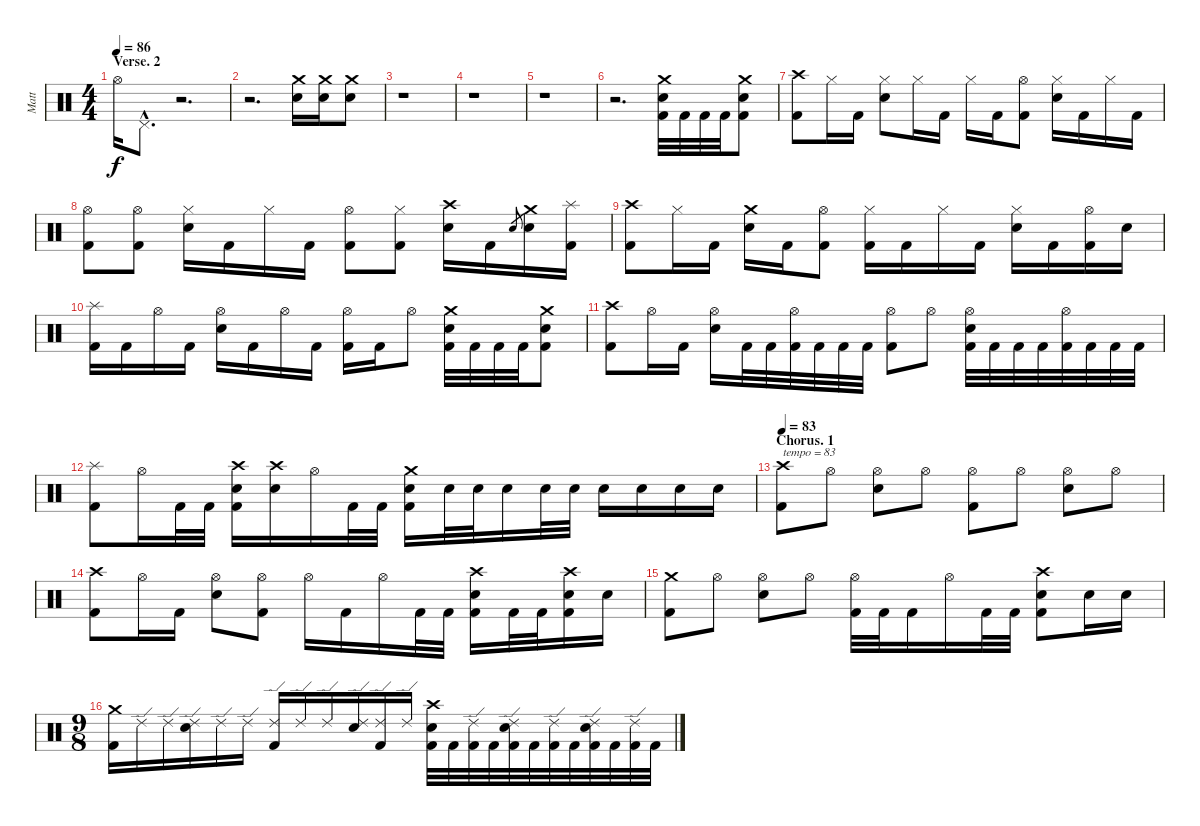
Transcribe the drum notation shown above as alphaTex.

\track ("Matt" "Matt") {instrument percussion}
\staff {score}
\articulation defaults
\ts (4 4)
\section ("" "Verse. 2")
\tempo 86
\clef neutral
\ks c "Hi-Hat (open)".16{dy f} "Pedal Hi-Hat (hit)"{hac}.8{d}
r.2{d} |
r.2{d} ("Crash medium (hit)" "Electric Snare (hit)").16 ("Crash medium (hit)" "Electric Snare (hit)").16 ("Crash medium (hit)" "Electric Snare (hit)").8 |
r.1 |
r.1 |
r.1 |
r.2{d} ("Crash medium (hit)" "Electric Snare (hit)" "Kick (hit) 2").32 "Kick (hit) 2".32 "Kick (hit) 2".32 "Kick (hit) 2".32 ("Crash medium (hit)" "Electric Snare (hit)" "Kick (hit) 2").8 |
("Crash high (hit)" "Kick (hit) 2").8 "Hi-Hat (closed)".16 "Kick (hit) 2".16 ("Hi-Hat (closed)" "Electric Snare (hit)").8 "Hi-Hat (closed)".16 "Kick (hit) 2".16 "Hi-Hat (closed)".16 "Kick (hit) 2".16 ("Hi-Hat (open)" "Kick (hit) 2").8 ("Hi-Hat (closed)" "Electric Snare (hit)").16 "Kick (hit) 2".16 "Hi-Hat (closed)".16 "Kick (hit) 2".16 |
("Hi-Hat (open)" "Kick (hit) 2").8 ("Hi-Hat (open)" "Kick (hit) 2").8 ("Hi-Hat (closed)" "Electric Snare (hit)").16 "Kick (hit) 2".16 "Hi-Hat (closed)".16 "Kick (hit) 2".16 ("Hi-Hat (open)" "Kick (hit) 2").8 ("Hi-Hat (closed)" "Kick (hit) 2").8 ("Crash high (hit)" "Electric Snare (hit)").16 "Kick (hit) 2".16 "Electric Snare (hit)".8{gr} ("Crash medium (hit)" "Electric Snare (hit)").16 ("Splash (hit)" "Kick (hit) 2").16 |
("Crash high (hit)" "Kick (hit) 2").8 "Hi-Hat (closed)".16 "Kick (hit) 2".16 ("Crash medium (hit)" "Electric Snare (hit)").16 "Kick (hit) 2".16 ("Hi-Hat (open)" "Kick (hit) 2").8 ("Hi-Hat (closed)" "Kick (hit) 2").16 "Kick (hit) 2".16 "Hi-Hat (closed)".16 "Kick (hit) 2".16 ("Hi-Hat (closed)" "Electric Snare (hit)").16 "Kick (hit) 2".16 ("Hi-Hat (open)" "Kick (hit) 2").16 "Electric Snare (hit)".16 |
("Splash (hit)" "Kick (hit) 2").16 "Kick (hit) 2".16 "Hi-Hat (open)".16 "Kick (hit) 2".16 ("Hi-Hat (open)" "Electric Snare (hit)").16 "Kick (hit) 2".16 "Hi-Hat (open)".16 "Kick (hit) 2".16 ("Hi-Hat (open)" "Kick (hit) 2").16 "Kick (hit) 2".16 "Hi-Hat (open)".8 ("Crash medium (hit)" "Electric Snare (hit)" "Kick (hit) 2").32 "Kick (hit) 2".32 "Kick (hit) 2".32 "Kick (hit) 2".32 ("Crash medium (hit)" "Electric Snare (hit)" "Kick (hit) 2").8 |
("Crash high (hit)" "Kick (hit) 2").8 "Hi-Hat (open)".16 "Kick (hit) 2".16 ("Hi-Hat (open)" "Electric Snare (hit)").16 "Kick (hit) 2".32 "Kick (hit) 2".32 ("Hi-Hat (open)" "Kick (hit) 2").32 "Kick (hit) 2".32 "Kick (hit) 2".32 "Kick (hit) 2".32 ("Hi-Hat (open)" "Kick (hit) 2").8 "Hi-Hat (open)".8 ("Hi-Hat (open)" "Electric Snare (hit)" "Kick (hit) 2").32 "Kick (hit) 2".32 "Kick (hit) 2".32 "Kick (hit) 2".32 ("Hi-Hat (open)" "Kick (hit) 2").32 "Kick (hit) 2".32 "Kick (hit) 2".32 "Kick (hit) 2".32 |
("Splash (hit)" "Kick (hit) 2").8 "Hi-Hat (open)".16 "Kick (hit) 2".32 "Kick (hit) 2".32 ("Crash high (hit)" "Electric Snare (hit)" "Kick (hit) 2").16 ("Crash high (hit)" "Electric Snare (hit)").16 "Hi-Hat (open)".16 "Kick (hit) 2".32 "Kick (hit) 2".32 ("Crash medium (hit)" "Electric Snare (hit)" "Kick (hit) 2").16 "Electric Snare (hit)".32 "Electric Snare (hit)".32 "Electric Snare (hit)".16 "Electric Snare (hit)".32 "Electric Snare (hit)".32 "Electric Snare (hit)".16 "Electric Snare (hit)".16 "Electric Snare (hit)".16 "Electric Snare (hit)".16 |
\section ("" "Chorus. 1")
\tempo 83
("Crash high (hit)" "Kick (hit) 2").8{txt "tempo = 83"} "Hi-Hat (open)".8 ("Hi-Hat (open)" "Electric Snare (hit)").8 "Hi-Hat (open)".8 ("Hi-Hat (open)" "Kick (hit) 2").8 "Hi-Hat (open)".8 ("Hi-Hat (open)" "Electric Snare (hit)").8 "Hi-Hat (open)".8 |
("Crash high (hit)" "Kick (hit) 2").8 "Hi-Hat (open)".16 "Kick (hit) 2".16 ("Hi-Hat (open)" "Electric Snare (hit)").8 ("Hi-Hat (open)" "Kick (hit) 2").8 "Hi-Hat (open)".16 "Kick (hit) 2".16 "Hi-Hat (open)".16 "Kick (hit) 2".32 "Kick (hit) 2".32 ("Crash high (hit)" "Electric Snare (hit)" "Kick (hit) 2").16 "Kick (hit) 2".32 "Kick (hit) 2".32 ("Crash high (hit)" "Electric Snare (hit)" "Kick (hit) 2").16 "Electric Snare (hit)".16 |
("Crash medium (hit)" "Kick (hit) 2").8 "Hi-Hat (open)".8 ("Hi-Hat (open)" "Electric Snare (hit)").8 "Hi-Hat (open)".8 ("Hi-Hat (open)" "Kick (hit) 2").32 "Kick (hit) 2".32 "Kick (hit) 2".16 "Hi-Hat (open)".16 "Kick (hit) 2".32 "Kick (hit) 2".32 ("Crash high (hit)" "Electric Snare (hit)" "Kick (hit) 2").8 "Electric Snare (hit)".16 "Electric Snare (hit)".16 |
\ts (9 8)
("Crash medium (hit)" "Kick (hit) 2").16 "Ride (edge) 2".16 "Ride (edge) 2".16 ("Ride (edge) 2" "Electric Snare (hit)").16 "Ride (edge) 2".16 "Ride (edge) 2".16 ("Ride (edge) 2" "Kick (hit) 2").16 "Ride (edge) 2".16 "Ride (edge) 2".16 ("Ride (edge) 2" "Electric Snare (hit)").16 ("Ride (edge) 2" "Kick (hit) 2").16 "Ride (edge) 2".16 ("Crash high (hit)" "Electric Snare (hit)" "Kick (hit) 2").32 "Kick (hit) 2".32 ("Ride (edge) 2" "Kick (hit) 2").32 "Kick (hit) 2".32 ("Ride (edge) 2" "Electric Snare (hit)" "Kick (hit) 2").32 "Kick (hit) 2".32 ("Ride (edge) 2" "Kick (hit) 2").32 "Kick (hit) 2".32 ("Ride (edge) 2" "Electric Snare (hit)" "Kick (hit) 2").32 "Kick (hit) 2".32 ("Ride (edge) 2" "Kick (hit) 2").32 "Kick (hit) 2".32
